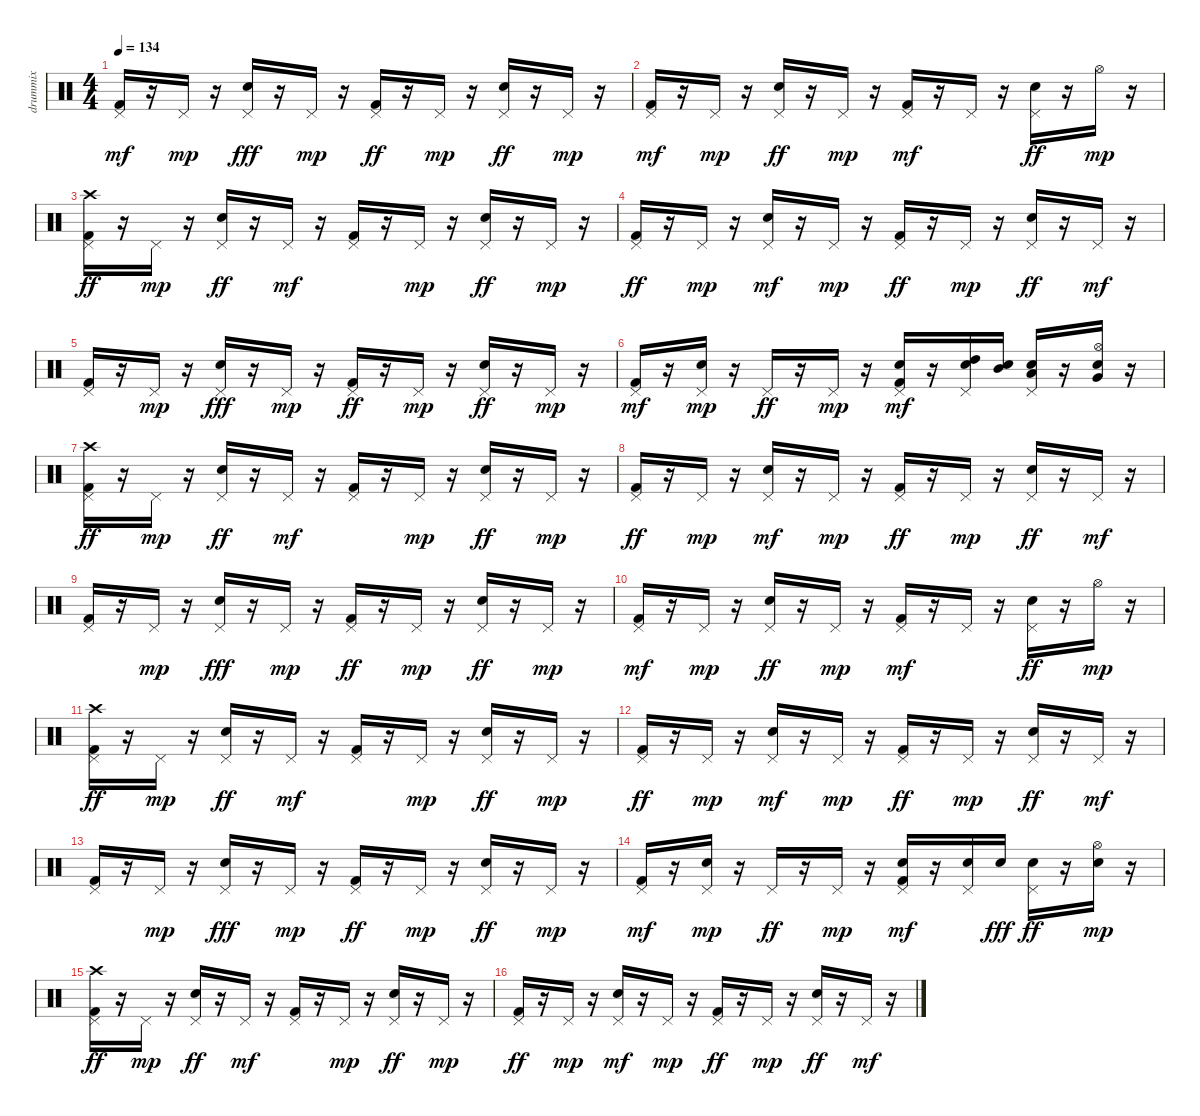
\track ("drummix" "drummix") {instrument percussion}
\staff {score}
\articulation defaults
\ts (4 4)
\tempo 134
\clef neutral
\ks c
("Kick (hit) 2" "Pedal Hi-Hat (hit)").16{dy mf} r.16 "Pedal Hi-Hat (hit)".16{dy mp} r.16 ("Snare (hit) 2" "Pedal Hi-Hat (hit)").16{dy fff} r.16 "Pedal Hi-Hat (hit)".16{dy mp} r.16 ("Kick (hit) 2" "Pedal Hi-Hat (hit)").16{dy ff} r.16 "Pedal Hi-Hat (hit)".16{dy mp} r.16 ("Snare (hit) 2" "Pedal Hi-Hat (hit)").16{dy ff} r.16 "Pedal Hi-Hat (hit)".16{dy mp} r.16 |
("Kick (hit) 2" "Pedal Hi-Hat (hit)").16{dy mf} r.16 "Pedal Hi-Hat (hit)".16{dy mp} r.16 ("Snare (hit) 2" "Pedal Hi-Hat (hit)").16{dy ff} r.16 "Pedal Hi-Hat (hit)".16{dy mp} r.16 ("Kick (hit) 2" "Pedal Hi-Hat (hit)").16{dy mf} r.16 "Pedal Hi-Hat (hit)".16 r.16 ("Snare (hit) 2" "Pedal Hi-Hat (hit)").16{dy ff} r.16 "Hi-Hat (open)".16{dy mp} r.16 |
("Kick (hit) 2" "Pedal Hi-Hat (hit)" "Crash high (hit)").16{dy ff} r.16 "Pedal Hi-Hat (hit)".16{dy mp} r.16 ("Snare (hit) 2" "Pedal Hi-Hat (hit)").16{dy ff} r.16 "Pedal Hi-Hat (hit)".16{dy mf} r.16 ("Kick (hit) 2" "Pedal Hi-Hat (hit)").16 r.16 "Pedal Hi-Hat (hit)".16{dy mp} r.16 ("Snare (hit) 2" "Pedal Hi-Hat (hit)").16{dy ff} r.16 "Pedal Hi-Hat (hit)".16{dy mp} r.16 |
("Kick (hit) 2" "Pedal Hi-Hat (hit)").16{dy ff} r.16 "Pedal Hi-Hat (hit)".16{dy mp} r.16 ("Snare (hit) 2" "Pedal Hi-Hat (hit)").16{dy mf} r.16 "Pedal Hi-Hat (hit)".16{dy mp} r.16 ("Kick (hit) 2" "Pedal Hi-Hat (hit)").16{dy ff} r.16 "Pedal Hi-Hat (hit)".16{dy mp} r.16 ("Snare (hit) 2" "Pedal Hi-Hat (hit)").16{dy ff} r.16 "Pedal Hi-Hat (hit)".16{dy mf} r.16 |
("Kick (hit) 2" "Pedal Hi-Hat (hit)").16 r.16 "Pedal Hi-Hat (hit)".16{dy mp} r.16 ("Snare (hit) 2" "Pedal Hi-Hat (hit)").16{dy fff} r.16 "Pedal Hi-Hat (hit)".16{dy mp} r.16 ("Kick (hit) 2" "Pedal Hi-Hat (hit)").16{dy ff} r.16 "Pedal Hi-Hat (hit)".16{dy mp} r.16 ("Snare (hit) 2" "Pedal Hi-Hat (hit)").16{dy ff} r.16 "Pedal Hi-Hat (hit)".16{dy mp} r.16 |
("Kick (hit) 2" "Pedal Hi-Hat (hit)").16{dy mf} r.16 ("Snare (hit) 2" "Pedal Hi-Hat (hit)").16{dy mp} r.16 "Pedal Hi-Hat (hit)".16{dy ff} r.16 "Pedal Hi-Hat (hit)".16{dy mp} r.16 ("Kick (hit) 2" "Snare (hit) 2" "Pedal Hi-Hat (hit)").16{dy mf} r.16 ("Snare (hit) 2" "Pedal Hi-Hat (hit)" "High Tom (hit)").16 ("Snare (hit) 2" "Mid Tom (hit)").16 ("Snare (hit) 2" "Pedal Hi-Hat (hit)" "Low Tom (hit)").16 r.16 ("Snare (hit) 2" "Hi-Hat (open)" "Very Low Tom (hit)").16 r.16 |
("Kick (hit) 2" "Pedal Hi-Hat (hit)" "Crash high (hit)").16{dy ff} r.16 "Pedal Hi-Hat (hit)".16{dy mp} r.16 ("Snare (hit) 2" "Pedal Hi-Hat (hit)").16{dy ff} r.16 "Pedal Hi-Hat (hit)".16{dy mf} r.16 ("Kick (hit) 2" "Pedal Hi-Hat (hit)").16 r.16 "Pedal Hi-Hat (hit)".16{dy mp} r.16 ("Snare (hit) 2" "Pedal Hi-Hat (hit)").16{dy ff} r.16 "Pedal Hi-Hat (hit)".16{dy mp} r.16 |
("Kick (hit) 2" "Pedal Hi-Hat (hit)").16{dy ff} r.16 "Pedal Hi-Hat (hit)".16{dy mp} r.16 ("Snare (hit) 2" "Pedal Hi-Hat (hit)").16{dy mf} r.16 "Pedal Hi-Hat (hit)".16{dy mp} r.16 ("Kick (hit) 2" "Pedal Hi-Hat (hit)").16{dy ff} r.16 "Pedal Hi-Hat (hit)".16{dy mp} r.16 ("Snare (hit) 2" "Pedal Hi-Hat (hit)").16{dy ff} r.16 "Pedal Hi-Hat (hit)".16{dy mf} r.16 |
("Kick (hit) 2" "Pedal Hi-Hat (hit)").16 r.16 "Pedal Hi-Hat (hit)".16{dy mp} r.16 ("Snare (hit) 2" "Pedal Hi-Hat (hit)").16{dy fff} r.16 "Pedal Hi-Hat (hit)".16{dy mp} r.16 ("Kick (hit) 2" "Pedal Hi-Hat (hit)").16{dy ff} r.16 "Pedal Hi-Hat (hit)".16{dy mp} r.16 ("Snare (hit) 2" "Pedal Hi-Hat (hit)").16{dy ff} r.16 "Pedal Hi-Hat (hit)".16{dy mp} r.16 |
("Kick (hit) 2" "Pedal Hi-Hat (hit)").16{dy mf} r.16 "Pedal Hi-Hat (hit)".16{dy mp} r.16 ("Snare (hit) 2" "Pedal Hi-Hat (hit)").16{dy ff} r.16 "Pedal Hi-Hat (hit)".16{dy mp} r.16 ("Kick (hit) 2" "Pedal Hi-Hat (hit)").16{dy mf} r.16 "Pedal Hi-Hat (hit)".16 r.16 ("Snare (hit) 2" "Pedal Hi-Hat (hit)").16{dy ff} r.16 "Hi-Hat (open)".16{dy mp} r.16 |
("Kick (hit) 2" "Pedal Hi-Hat (hit)" "Crash high (hit)").16{dy ff} r.16 "Pedal Hi-Hat (hit)".16{dy mp} r.16 ("Snare (hit) 2" "Pedal Hi-Hat (hit)").16{dy ff} r.16 "Pedal Hi-Hat (hit)".16{dy mf} r.16 ("Kick (hit) 2" "Pedal Hi-Hat (hit)").16 r.16 "Pedal Hi-Hat (hit)".16{dy mp} r.16 ("Snare (hit) 2" "Pedal Hi-Hat (hit)").16{dy ff} r.16 "Pedal Hi-Hat (hit)".16{dy mp} r.16 |
("Kick (hit) 2" "Pedal Hi-Hat (hit)").16{dy ff} r.16 "Pedal Hi-Hat (hit)".16{dy mp} r.16 ("Snare (hit) 2" "Pedal Hi-Hat (hit)").16{dy mf} r.16 "Pedal Hi-Hat (hit)".16{dy mp} r.16 ("Kick (hit) 2" "Pedal Hi-Hat (hit)").16{dy ff} r.16 "Pedal Hi-Hat (hit)".16{dy mp} r.16 ("Snare (hit) 2" "Pedal Hi-Hat (hit)").16{dy ff} r.16 "Pedal Hi-Hat (hit)".16{dy mf} r.16 |
("Kick (hit) 2" "Pedal Hi-Hat (hit)").16 r.16 "Pedal Hi-Hat (hit)".16{dy mp} r.16 ("Snare (hit) 2" "Pedal Hi-Hat (hit)").16{dy fff} r.16 "Pedal Hi-Hat (hit)".16{dy mp} r.16 ("Kick (hit) 2" "Pedal Hi-Hat (hit)").16{dy ff} r.16 "Pedal Hi-Hat (hit)".16{dy mp} r.16 ("Snare (hit) 2" "Pedal Hi-Hat (hit)").16{dy ff} r.16 "Pedal Hi-Hat (hit)".16{dy mp} r.16 |
("Kick (hit) 2" "Pedal Hi-Hat (hit)").16{dy mf} r.16 ("Snare (hit) 2" "Pedal Hi-Hat (hit)").16{dy mp} r.16 "Pedal Hi-Hat (hit)".16{dy ff} r.16 "Pedal Hi-Hat (hit)".16{dy mp} r.16 ("Kick (hit) 2" "Snare (hit) 2" "Pedal Hi-Hat (hit)").16{dy mf} r.16 ("Snare (hit) 2" "Pedal Hi-Hat (hit)").16 "Snare (hit) 2".16{dy fff} ("Snare (hit) 2" "Pedal Hi-Hat (hit)").16{dy ff} r.16 ("Snare (hit) 2" "Hi-Hat (open)").16{dy mp} r.16 |
("Kick (hit) 2" "Pedal Hi-Hat (hit)" "Crash high (hit)").16{dy ff} r.16 "Pedal Hi-Hat (hit)".16{dy mp} r.16 ("Snare (hit) 2" "Pedal Hi-Hat (hit)").16{dy ff} r.16 "Pedal Hi-Hat (hit)".16{dy mf} r.16 ("Kick (hit) 2" "Pedal Hi-Hat (hit)").16 r.16 "Pedal Hi-Hat (hit)".16{dy mp} r.16 ("Snare (hit) 2" "Pedal Hi-Hat (hit)").16{dy ff} r.16 "Pedal Hi-Hat (hit)".16{dy mp} r.16 |
("Kick (hit) 2" "Pedal Hi-Hat (hit)").16{dy ff} r.16 "Pedal Hi-Hat (hit)".16{dy mp} r.16 ("Snare (hit) 2" "Pedal Hi-Hat (hit)").16{dy mf} r.16 "Pedal Hi-Hat (hit)".16{dy mp} r.16 ("Kick (hit) 2" "Pedal Hi-Hat (hit)").16{dy ff} r.16 "Pedal Hi-Hat (hit)".16{dy mp} r.16 ("Snare (hit) 2" "Pedal Hi-Hat (hit)").16{dy ff} r.16 "Pedal Hi-Hat (hit)".16{dy mf} r.16
